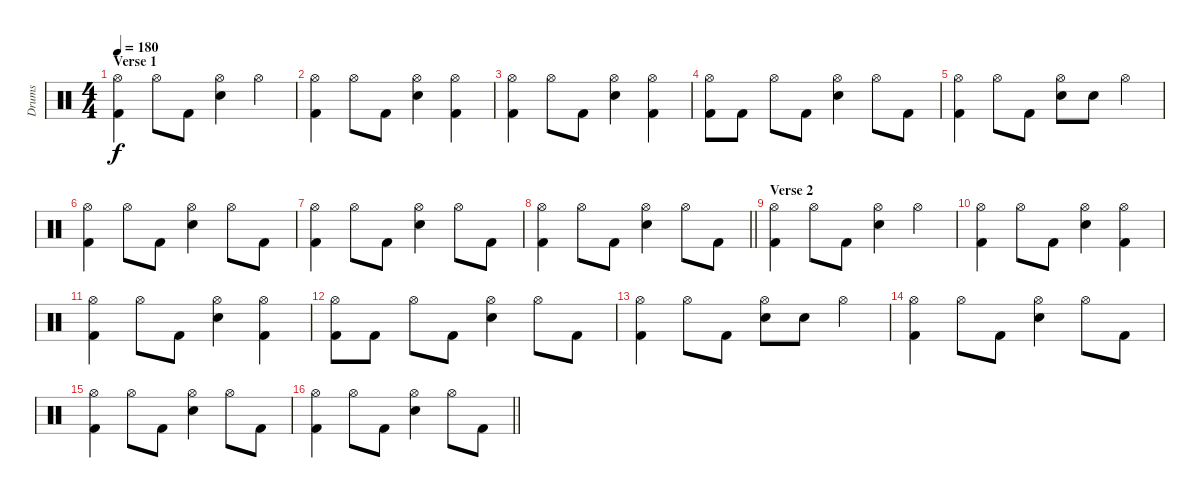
\track ("Drums" "Drums") {instrument percussion}
\staff {score}
\articulation defaults
\ts (4 4)
\section ("" "Verse 1")
\tempo 180
\clef neutral
\ks c
("Hi-Hat (open)" "Kick (hit) 2").4{dy f} "Hi-Hat (open)".8 "Kick (hit) 2".8 ("Hi-Hat (open)" "Electric Snare (hit)").4 "Hi-Hat (open)".4 |
("Hi-Hat (open)" "Kick (hit) 2").4 "Hi-Hat (open)".8 "Kick (hit) 2".8 ("Hi-Hat (open)" "Electric Snare (hit)").4 ("Hi-Hat (open)" "Kick (hit) 2").4 |
("Hi-Hat (open)" "Kick (hit) 2").4 "Hi-Hat (open)".8 "Kick (hit) 2".8 ("Hi-Hat (open)" "Electric Snare (hit)").4 ("Hi-Hat (open)" "Kick (hit) 2").4 |
("Hi-Hat (open)" "Kick (hit) 2").8 "Kick (hit) 2".8 "Hi-Hat (open)".8 "Kick (hit) 2".8 ("Hi-Hat (open)" "Electric Snare (hit)").4 "Hi-Hat (open)".8 "Kick (hit) 2".8 |
("Hi-Hat (open)" "Kick (hit) 2").4 "Hi-Hat (open)".8 "Kick (hit) 2".8 ("Hi-Hat (open)" "Electric Snare (hit)").8 "Electric Snare (hit)".8 "Hi-Hat (open)".4 |
("Hi-Hat (open)" "Kick (hit) 2").4 "Hi-Hat (open)".8 "Kick (hit) 2".8 ("Hi-Hat (open)" "Electric Snare (hit)").4 "Hi-Hat (open)".8 "Kick (hit) 2".8 |
("Hi-Hat (open)" "Kick (hit) 2").4 "Hi-Hat (open)".8 "Kick (hit) 2".8 ("Hi-Hat (open)" "Electric Snare (hit)").4 "Hi-Hat (open)".8 "Kick (hit) 2".8 |
\barLineRight lightlight
("Hi-Hat (open)" "Kick (hit) 2").4 "Hi-Hat (open)".8 "Kick (hit) 2".8 ("Hi-Hat (open)" "Electric Snare (hit)").4 "Hi-Hat (open)".8 "Kick (hit) 2".8 |
\section ("" "Verse 2")
("Hi-Hat (open)" "Kick (hit) 2").4 "Hi-Hat (open)".8 "Kick (hit) 2".8 ("Hi-Hat (open)" "Electric Snare (hit)").4 "Hi-Hat (open)".4 |
("Hi-Hat (open)" "Kick (hit) 2").4 "Hi-Hat (open)".8 "Kick (hit) 2".8 ("Hi-Hat (open)" "Electric Snare (hit)").4 ("Hi-Hat (open)" "Kick (hit) 2").4 |
("Hi-Hat (open)" "Kick (hit) 2").4 "Hi-Hat (open)".8 "Kick (hit) 2".8 ("Hi-Hat (open)" "Electric Snare (hit)").4 ("Hi-Hat (open)" "Kick (hit) 2").4 |
("Hi-Hat (open)" "Kick (hit) 2").8 "Kick (hit) 2".8 "Hi-Hat (open)".8 "Kick (hit) 2".8 ("Hi-Hat (open)" "Electric Snare (hit)").4 "Hi-Hat (open)".8 "Kick (hit) 2".8 |
("Hi-Hat (open)" "Kick (hit) 2").4 "Hi-Hat (open)".8 "Kick (hit) 2".8 ("Hi-Hat (open)" "Electric Snare (hit)").8 "Electric Snare (hit)".8 "Hi-Hat (open)".4 |
("Hi-Hat (open)" "Kick (hit) 2").4 "Hi-Hat (open)".8 "Kick (hit) 2".8 ("Hi-Hat (open)" "Electric Snare (hit)").4 "Hi-Hat (open)".8 "Kick (hit) 2".8 |
("Hi-Hat (open)" "Kick (hit) 2").4 "Hi-Hat (open)".8 "Kick (hit) 2".8 ("Hi-Hat (open)" "Electric Snare (hit)").4 "Hi-Hat (open)".8 "Kick (hit) 2".8 |
\barLineRight lightlight
("Hi-Hat (open)" "Kick (hit) 2").4 "Hi-Hat (open)".8 "Kick (hit) 2".8 ("Hi-Hat (open)" "Electric Snare (hit)").4 "Hi-Hat (open)".8 "Kick (hit) 2".8
